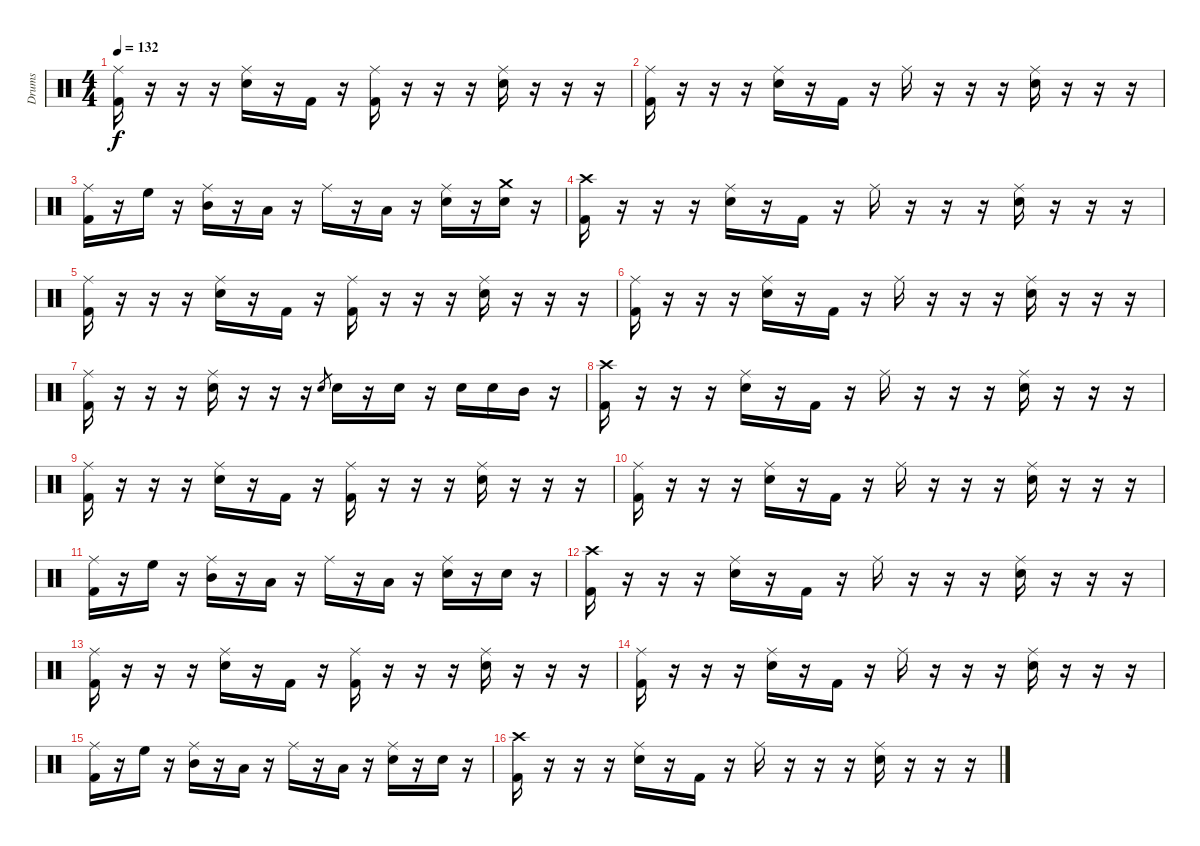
\track ("Drums" "Drums") {instrument percussion}
\staff {score}
\articulation defaults
\ts (4 4)
\tempo 132
\clef neutral
\ks c
("Ride (middle)" "Kick (hit) 2").16{dy f} r.16 r.16 r.16 ("Ride (middle)" "Snare (hit) 2").16 r.16 "Kick (hit) 2".16 r.16 ("Ride (middle)" "Kick (hit) 2").16 r.16 r.16 r.16 ("Ride (middle)" "Snare (hit) 2").16 r.16 r.16 r.16 |
("Ride (middle)" "Kick (hit) 2").16 r.16 r.16 r.16 ("Ride (middle)" "Snare (hit) 2").16 r.16 "Kick (hit) 2".16 r.16 "Ride (middle)".16 r.16 r.16 r.16 ("Ride (middle)" "Snare (hit) 2").16 r.16 r.16 r.16 |
("Ride (middle)" "Kick (hit) 2").16 r.16 "High Floor Tom (hit)".16 r.16 ("Ride (middle)" "Mid Tom (hit)").16 r.16 "Low Tom (hit)".16 r.16 "Ride (middle)".16 r.16 "Low Tom (hit)".16 r.16 ("Ride (middle)" "Snare (hit) 2").16 r.16 ("Crash medium (hit)" "Snare (hit) 2").16 r.16 |
("Crash high (hit)" "Kick (hit) 2").16 r.16 r.16 r.16 ("Ride (middle)" "Snare (hit) 2").16 r.16 "Kick (hit) 2".16 r.16 "Ride (middle)".16 r.16 r.16 r.16 ("Ride (middle)" "Snare (hit) 2").16 r.16 r.16 r.16 |
("Ride (middle)" "Kick (hit) 2").16 r.16 r.16 r.16 ("Ride (middle)" "Snare (hit) 2").16 r.16 "Kick (hit) 2".16 r.16 ("Ride (middle)" "Kick (hit) 2").16 r.16 r.16 r.16 ("Ride (middle)" "Snare (hit) 2").16 r.16 r.16 r.16 |
("Ride (middle)" "Kick (hit) 2").16 r.16 r.16 r.16 ("Ride (middle)" "Snare (hit) 2").16 r.16 "Kick (hit) 2".16 r.16 "Ride (middle)".16 r.16 r.16 r.16 ("Ride (middle)" "Snare (hit) 2").16 r.16 r.16 r.16 |
("Ride (middle)" "Kick (hit) 2").16 r.16 r.16 r.16 ("Ride (middle)" "Snare (hit) 2").16 r.16 r.16 r.16 "Snare (hit) 2".8{gr} "Snare (hit) 2".16 r.16 "Snare (hit) 2".16 r.16 "Snare (hit) 2".16 "Snare (hit) 2".16 "Mid Tom (hit)".16 r.16 |
("Crash high (hit)" "Kick (hit) 2").16 r.16 r.16 r.16 ("Ride (middle)" "Snare (hit) 2").16 r.16 "Kick (hit) 2".16 r.16 "Ride (middle)".16 r.16 r.16 r.16 ("Ride (middle)" "Snare (hit) 2").16 r.16 r.16 r.16 |
("Ride (middle)" "Kick (hit) 2").16 r.16 r.16 r.16 ("Ride (middle)" "Snare (hit) 2").16 r.16 "Kick (hit) 2".16 r.16 ("Ride (middle)" "Kick (hit) 2").16 r.16 r.16 r.16 ("Ride (middle)" "Snare (hit) 2").16 r.16 r.16 r.16 |
("Ride (middle)" "Kick (hit) 2").16 r.16 r.16 r.16 ("Ride (middle)" "Snare (hit) 2").16 r.16 "Kick (hit) 2".16 r.16 "Ride (middle)".16 r.16 r.16 r.16 ("Ride (middle)" "Snare (hit) 2").16 r.16 r.16 r.16 |
("Ride (middle)" "Kick (hit) 2").16 r.16 "High Floor Tom (hit)".16 r.16 ("Ride (middle)" "Mid Tom (hit)").16 r.16 "Low Tom (hit)".16 r.16 "Ride (middle)".16 r.16 "Low Tom (hit)".16 r.16 ("Ride (middle)" "Snare (hit) 2").16 r.16 "Snare (hit) 2".16 r.16 |
("Crash high (hit)" "Kick (hit) 2").16 r.16 r.16 r.16 ("Ride (middle)" "Snare (hit) 2").16 r.16 "Kick (hit) 2".16 r.16 "Ride (middle)".16 r.16 r.16 r.16 ("Ride (middle)" "Snare (hit) 2").16 r.16 r.16 r.16 |
("Ride (middle)" "Kick (hit) 2").16 r.16 r.16 r.16 ("Ride (middle)" "Snare (hit) 2").16 r.16 "Kick (hit) 2".16 r.16 ("Ride (middle)" "Kick (hit) 2").16 r.16 r.16 r.16 ("Ride (middle)" "Snare (hit) 2").16 r.16 r.16 r.16 |
("Ride (middle)" "Kick (hit) 2").16 r.16 r.16 r.16 ("Ride (middle)" "Snare (hit) 2").16 r.16 "Kick (hit) 2".16 r.16 "Ride (middle)".16 r.16 r.16 r.16 ("Ride (middle)" "Snare (hit) 2").16 r.16 r.16 r.16 |
("Ride (middle)" "Kick (hit) 2").16 r.16 "High Floor Tom (hit)".16 r.16 ("Ride (middle)" "Mid Tom (hit)").16 r.16 "Low Tom (hit)".16 r.16 "Ride (middle)".16 r.16 "Low Tom (hit)".16 r.16 ("Ride (middle)" "Snare (hit) 2").16 r.16 "Snare (hit) 2".16 r.16 |
("Crash high (hit)" "Kick (hit) 2").16 r.16 r.16 r.16 ("Ride (middle)" "Snare (hit) 2").16 r.16 "Kick (hit) 2".16 r.16 "Ride (middle)".16 r.16 r.16 r.16 ("Ride (middle)" "Snare (hit) 2").16 r.16 r.16 r.16
